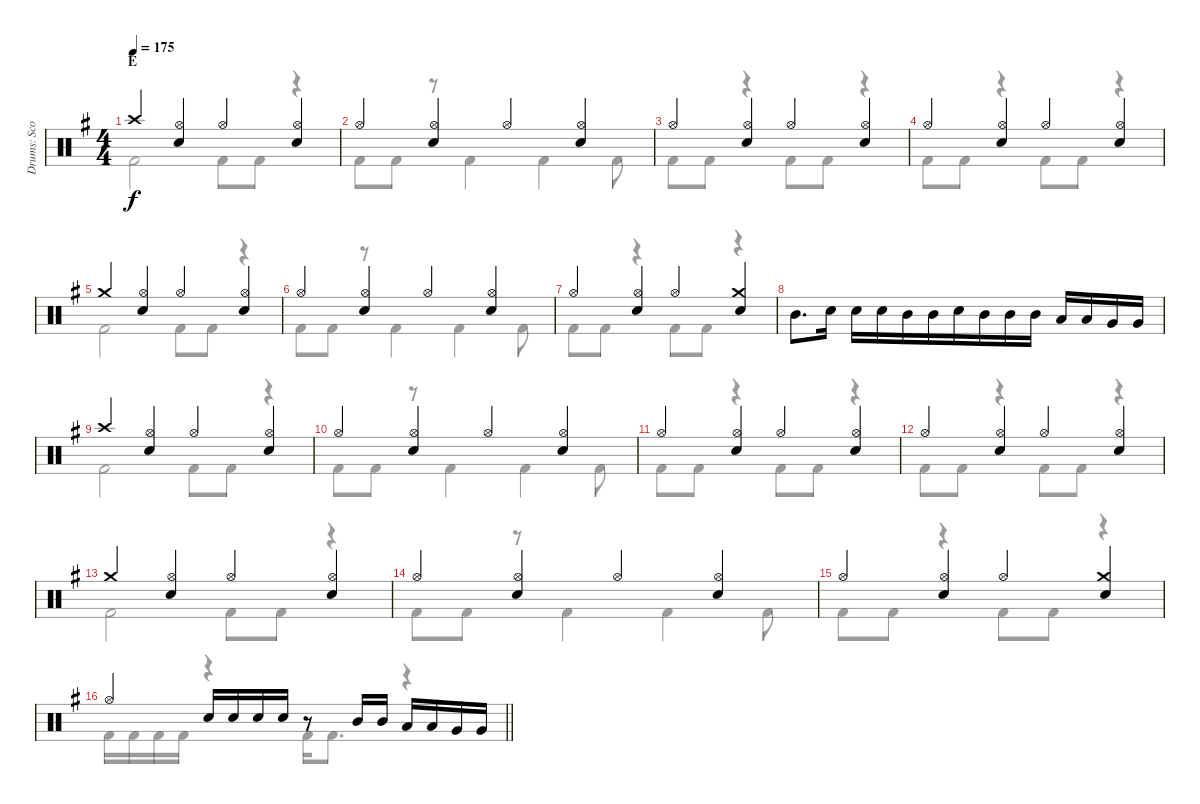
\track ("Drums: Scott" "Drums: Sco") {instrument percussion}
\staff {score}
\articulation defaults
\voice
\ts (4 4)
\section ("" "E")
\tempo 175
\clef neutral
\ks g "Crash high (hit)".4{dy f}
("Hi-Hat (open)" "Snare (hit) 2").4 "Hi-Hat (open)".4 ("Hi-Hat (open)" "Snare (hit) 2").4 |
"Hi-Hat (open)".4 ("Hi-Hat (open)" "Snare (hit) 2").4 "Hi-Hat (open)".4 ("Hi-Hat (open)" "Snare (hit) 2").4 |
"Hi-Hat (open)".4 ("Hi-Hat (open)" "Snare (hit) 2").4 "Hi-Hat (open)".4 ("Hi-Hat (open)" "Snare (hit) 2").4 |
"Hi-Hat (open)".4 ("Hi-Hat (open)" "Snare (hit) 2").4 "Hi-Hat (open)".4 ("Hi-Hat (open)" "Snare (hit) 2").4 |
"Crash medium (hit)".4 ("Hi-Hat (open)" "Snare (hit) 2").4 "Hi-Hat (open)".4 ("Hi-Hat (open)" "Snare (hit) 2").4 |
"Hi-Hat (open)".4 ("Hi-Hat (open)" "Snare (hit) 2").4 "Hi-Hat (open)".4 ("Hi-Hat (open)" "Snare (hit) 2").4 |
"Hi-Hat (open)".4 ("Hi-Hat (open)" "Snare (hit) 2").4 "Hi-Hat (open)".4 ("Crash medium (hit)" "Snare (hit) 2").4 |
"Mid Tom (hit)".8{d} "Snare (hit) 2".16 "Snare (hit) 2".16 "Snare (hit) 2".16 "Mid Tom (hit)".16 "Mid Tom (hit)".16{beam merge} "Snare (hit) 2".16 "Mid Tom (hit)".16 "Mid Tom (hit)".16 "Mid Tom (hit)".16 "Low Tom (hit)".16 "Low Tom (hit)".16 "Very Low Tom (hit)".16 "Very Low Tom (hit)".16 |
"Crash high (hit)".4 ("Hi-Hat (open)" "Snare (hit) 2").4 "Hi-Hat (open)".4 ("Hi-Hat (open)" "Snare (hit) 2").4 |
"Hi-Hat (open)".4 ("Hi-Hat (open)" "Snare (hit) 2").4 "Hi-Hat (open)".4 ("Hi-Hat (open)" "Snare (hit) 2").4 |
"Hi-Hat (open)".4 ("Hi-Hat (open)" "Snare (hit) 2").4 "Hi-Hat (open)".4 ("Hi-Hat (open)" "Snare (hit) 2").4 |
"Hi-Hat (open)".4 ("Hi-Hat (open)" "Snare (hit) 2").4 "Hi-Hat (open)".4 ("Hi-Hat (open)" "Snare (hit) 2").4 |
"Crash medium (hit)".4 ("Hi-Hat (open)" "Snare (hit) 2").4 "Hi-Hat (open)".4 ("Hi-Hat (open)" "Snare (hit) 2").4 |
"Hi-Hat (open)".4 ("Hi-Hat (open)" "Snare (hit) 2").4 "Hi-Hat (open)".4 ("Hi-Hat (open)" "Snare (hit) 2").4 |
"Hi-Hat (open)".4 ("Hi-Hat (open)" "Snare (hit) 2").4 "Hi-Hat (open)".4 ("Crash medium (hit)" "Snare (hit) 2").4 |
\barLineRight lightlight "Hi-Hat (open)".4 "Snare (hit) 2".16 "Snare (hit) 2".16 "Snare (hit) 2".16 "Snare (hit) 2".16
r.8 "Mid Tom (hit)".16 "Mid Tom (hit)".16 "Low Tom (hit)".16 "Low Tom (hit)".16 "Very Low Tom (hit)".16 "Very Low Tom (hit)".16
\voice
\clef neutral
\ottava regular
\simile none
\ks g "Kick (hit) 2".2{dy f} "Kick (hit) 2".8 "Kick (hit) 2".8
r.4 |
"Kick (hit) 2".8 "Kick (hit) 2".8 r.8 "Kick (hit) 2".4 "Kick (hit) 2".4 "Kick (hit) 2".8 |
"Kick (hit) 2".8 "Kick (hit) 2".8 r.4 "Kick (hit) 2".8 "Kick (hit) 2".8 r.4 |
"Kick (hit) 2".8 "Kick (hit) 2".8 r.4 "Kick (hit) 2".8 "Kick (hit) 2".8 r.4 |
"Kick (hit) 2".2 "Kick (hit) 2".8 "Kick (hit) 2".8 r.4 |
"Kick (hit) 2".8 "Kick (hit) 2".8 r.8 "Kick (hit) 2".4 "Kick (hit) 2".4 "Kick (hit) 2".8 |
"Kick (hit) 2".8 "Kick (hit) 2".8 r.4 "Kick (hit) 2".8 "Kick (hit) 2".8 r.4 |
|
"Kick (hit) 2".2 "Kick (hit) 2".8 "Kick (hit) 2".8 r.4 |
"Kick (hit) 2".8 "Kick (hit) 2".8 r.8 "Kick (hit) 2".4 "Kick (hit) 2".4 "Kick (hit) 2".8 |
"Kick (hit) 2".8 "Kick (hit) 2".8 r.4 "Kick (hit) 2".8 "Kick (hit) 2".8 r.4 |
"Kick (hit) 2".8 "Kick (hit) 2".8 r.4 "Kick (hit) 2".8 "Kick (hit) 2".8 r.4 |
"Kick (hit) 2".2 "Kick (hit) 2".8 "Kick (hit) 2".8 r.4 |
"Kick (hit) 2".8 "Kick (hit) 2".8 r.8 "Kick (hit) 2".4 "Kick (hit) 2".4 "Kick (hit) 2".8 |
"Kick (hit) 2".8 "Kick (hit) 2".8 r.4 "Kick (hit) 2".8 "Kick (hit) 2".8 r.4 |
\barLineRight lightlight "Kick (hit) 2".16 "Kick (hit) 2".16 "Kick (hit) 2".16 "Kick (hit) 2".16
r.4 "Kick (hit) 2".16 "Kick (hit) 2".8{d} r.4
